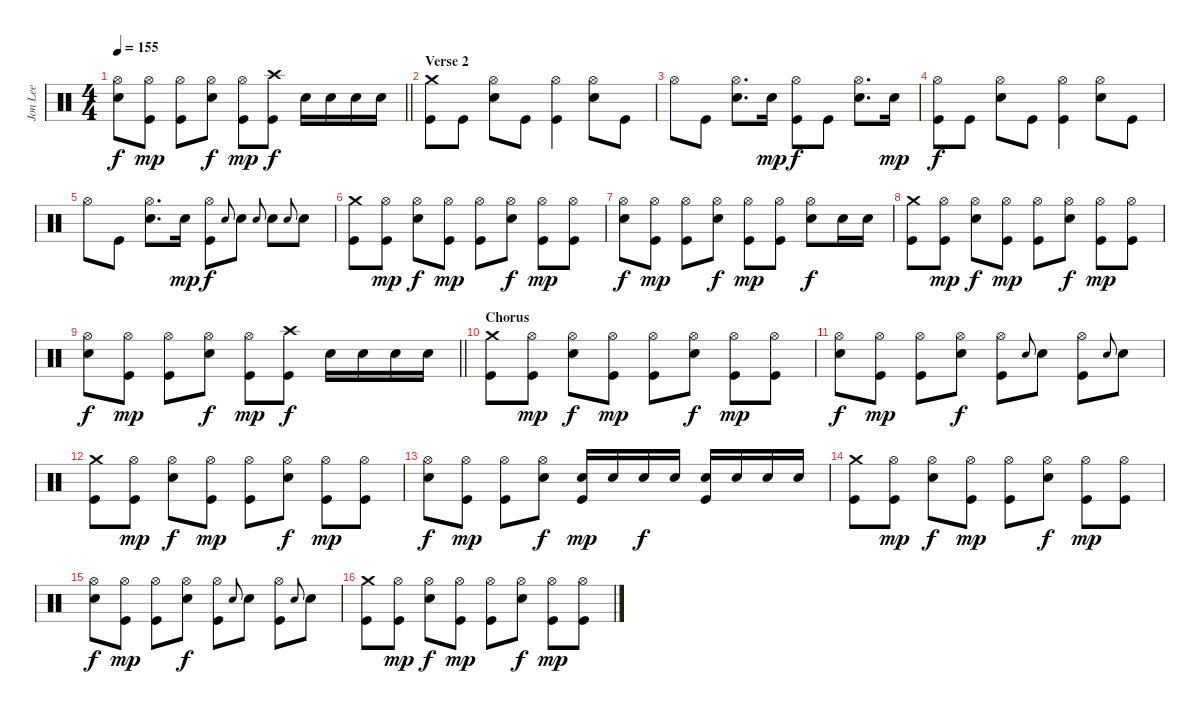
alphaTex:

\track ("Jon Lee" "Jon Lee") {instrument percussion}
\staff {score}
\articulation defaults
\ts (4 4)
\tempo 155
\clef neutral
\barLineRight lightlight
\ks c
("Hi-Hat (open)" "Electric Snare (hit)").8{dy f} ("Hi-Hat (open)" "Kick (hit)").8{dy mp} ("Hi-Hat (open)" "Kick (hit)").8 ("Hi-Hat (open)" "Electric Snare (hit)").8{dy f} ("Hi-Hat (open)" "Kick (hit)").8{dy mp} ("Crash high (hit)" "Kick (hit)").8{dy f} "Electric Snare (hit)".16 "Electric Snare (hit)".16 "Electric Snare (hit)".16 "Electric Snare (hit)".16 |
\section ("" "Verse 2")
("Crash medium (hit)" "Kick (hit)").8 "Kick (hit)".8 ("Hi-Hat (open)" "Electric Snare (hit)").8 "Kick (hit)".8 ("Hi-Hat (open)" "Kick (hit)").4 ("Hi-Hat (open)" "Electric Snare (hit)").8 "Kick (hit)".8 |
"Hi-Hat (open)".8 "Kick (hit)".8 ("Hi-Hat (open)" "Electric Snare (hit)").8{d} "Electric Snare (hit)".16{dy mp} ("Hi-Hat (open)" "Kick (hit)").8{dy f} "Kick (hit)".8 ("Hi-Hat (open)" "Electric Snare (hit)").8{d} "Electric Snare (hit)".16{dy mp} |
("Hi-Hat (open)" "Kick (hit)").8{dy f} "Kick (hit)".8 ("Hi-Hat (open)" "Electric Snare (hit)").8 "Kick (hit)".8 ("Hi-Hat (open)" "Kick (hit)").4 ("Hi-Hat (open)" "Electric Snare (hit)").8 "Kick (hit)".8 |
"Hi-Hat (open)".8 "Kick (hit)".8 ("Hi-Hat (open)" "Electric Snare (hit)").8{d} "Electric Snare (hit)".16{dy mp} ("Hi-Hat (open)" "Kick (hit)").8{dy f} "Electric Snare (hit)".8{gr onbeat} "Electric Snare (hit)".8 "Electric Snare (hit)".8{gr onbeat} "Electric Snare (hit)".8 "Electric Snare (hit)".8{gr onbeat} "Electric Snare (hit)".8 |
("Crash medium (hit)" "Kick (hit)").8 ("Hi-Hat (open)" "Kick (hit)").8{dy mp} ("Hi-Hat (open)" "Electric Snare (hit)").8{dy f} ("Hi-Hat (open)" "Kick (hit)").8{dy mp} ("Hi-Hat (open)" "Kick (hit)").8 ("Hi-Hat (open)" "Electric Snare (hit)").8{dy f} ("Hi-Hat (open)" "Kick (hit)").8{dy mp} ("Hi-Hat (open)" "Kick (hit)").8 |
("Hi-Hat (open)" "Electric Snare (hit)").8{dy f} ("Hi-Hat (open)" "Kick (hit)").8{dy mp} ("Hi-Hat (open)" "Kick (hit)").8 ("Hi-Hat (open)" "Electric Snare (hit)").8{dy f} ("Hi-Hat (open)" "Kick (hit)").8{dy mp} ("Hi-Hat (open)" "Kick (hit)").8 ("Hi-Hat (open)" "Electric Snare (hit)").8{dy f} "Electric Snare (hit)".16 "Electric Snare (hit)".16 |
("Crash medium (hit)" "Kick (hit)").8 ("Hi-Hat (open)" "Kick (hit)").8{dy mp} ("Hi-Hat (open)" "Electric Snare (hit)").8{dy f} ("Hi-Hat (open)" "Kick (hit)").8{dy mp} ("Hi-Hat (open)" "Kick (hit)").8 ("Hi-Hat (open)" "Electric Snare (hit)").8{dy f} ("Hi-Hat (open)" "Kick (hit)").8{dy mp} ("Hi-Hat (open)" "Kick (hit)").8 |
\barLineRight lightlight
("Hi-Hat (open)" "Electric Snare (hit)").8{dy f} ("Hi-Hat (open)" "Kick (hit)").8{dy mp} ("Hi-Hat (open)" "Kick (hit)").8 ("Hi-Hat (open)" "Electric Snare (hit)").8{dy f} ("Hi-Hat (open)" "Kick (hit)").8{dy mp} ("Crash high (hit)" "Kick (hit)").8{dy f} "Electric Snare (hit)".16 "Electric Snare (hit)".16 "Electric Snare (hit)".16 "Electric Snare (hit)".16 |
\section ("" "Chorus")
("Crash medium (hit)" "Kick (hit)").8 ("Hi-Hat (open)" "Kick (hit)").8{dy mp} ("Hi-Hat (open)" "Electric Snare (hit)").8{dy f} ("Hi-Hat (open)" "Kick (hit)").8{dy mp} ("Hi-Hat (open)" "Kick (hit)").8 ("Hi-Hat (open)" "Electric Snare (hit)").8{dy f} ("Hi-Hat (open)" "Kick (hit)").8{dy mp} ("Hi-Hat (open)" "Kick (hit)").8 |
("Hi-Hat (open)" "Electric Snare (hit)").8{dy f} ("Hi-Hat (open)" "Kick (hit)").8{dy mp} ("Hi-Hat (open)" "Kick (hit)").8 ("Hi-Hat (open)" "Electric Snare (hit)").8{dy f} ("Hi-Hat (open)" "Kick (hit)").8 "Electric Snare (hit)".8{gr onbeat} "Electric Snare (hit)".8 ("Hi-Hat (open)" "Kick (hit)").8 "Electric Snare (hit)".8{gr onbeat} "Electric Snare (hit)".8 |
("Crash medium (hit)" "Kick (hit)").8 ("Hi-Hat (open)" "Kick (hit)").8{dy mp} ("Hi-Hat (open)" "Electric Snare (hit)").8{dy f} ("Hi-Hat (open)" "Kick (hit)").8{dy mp} ("Hi-Hat (open)" "Kick (hit)").8 ("Hi-Hat (open)" "Electric Snare (hit)").8{dy f} ("Hi-Hat (open)" "Kick (hit)").8{dy mp} ("Hi-Hat (open)" "Kick (hit)").8 |
("Hi-Hat (open)" "Electric Snare (hit)").8{dy f} ("Hi-Hat (open)" "Kick (hit)").8{dy mp} ("Hi-Hat (open)" "Kick (hit)").8 ("Hi-Hat (open)" "Electric Snare (hit)").8{dy f} ("Electric Snare (hit)" "Kick (hit)").16{dy mp} "Electric Snare (hit)".16 "Electric Snare (hit)".16{dy f} "Electric Snare (hit)".16 ("Electric Snare (hit)" "Kick (hit)").16 "Electric Snare (hit)".16 "Electric Snare (hit)".16 "Electric Snare (hit)".16 |
("Crash medium (hit)" "Kick (hit)").8 ("Hi-Hat (open)" "Kick (hit)").8{dy mp} ("Hi-Hat (open)" "Electric Snare (hit)").8{dy f} ("Hi-Hat (open)" "Kick (hit)").8{dy mp} ("Hi-Hat (open)" "Kick (hit)").8 ("Hi-Hat (open)" "Electric Snare (hit)").8{dy f} ("Hi-Hat (open)" "Kick (hit)").8{dy mp} ("Hi-Hat (open)" "Kick (hit)").8 |
("Hi-Hat (open)" "Electric Snare (hit)").8{dy f} ("Hi-Hat (open)" "Kick (hit)").8{dy mp} ("Hi-Hat (open)" "Kick (hit)").8 ("Hi-Hat (open)" "Electric Snare (hit)").8{dy f} ("Hi-Hat (open)" "Kick (hit)").8 "Electric Snare (hit)".8{gr onbeat} "Electric Snare (hit)".8 ("Hi-Hat (open)" "Kick (hit)").8 "Electric Snare (hit)".8{gr onbeat} "Electric Snare (hit)".8 |
("Crash medium (hit)" "Kick (hit)").8 ("Hi-Hat (open)" "Kick (hit)").8{dy mp} ("Hi-Hat (open)" "Electric Snare (hit)").8{dy f} ("Hi-Hat (open)" "Kick (hit)").8{dy mp} ("Hi-Hat (open)" "Kick (hit)").8 ("Hi-Hat (open)" "Electric Snare (hit)").8{dy f} ("Hi-Hat (open)" "Kick (hit)").8{dy mp} ("Hi-Hat (open)" "Kick (hit)").8
